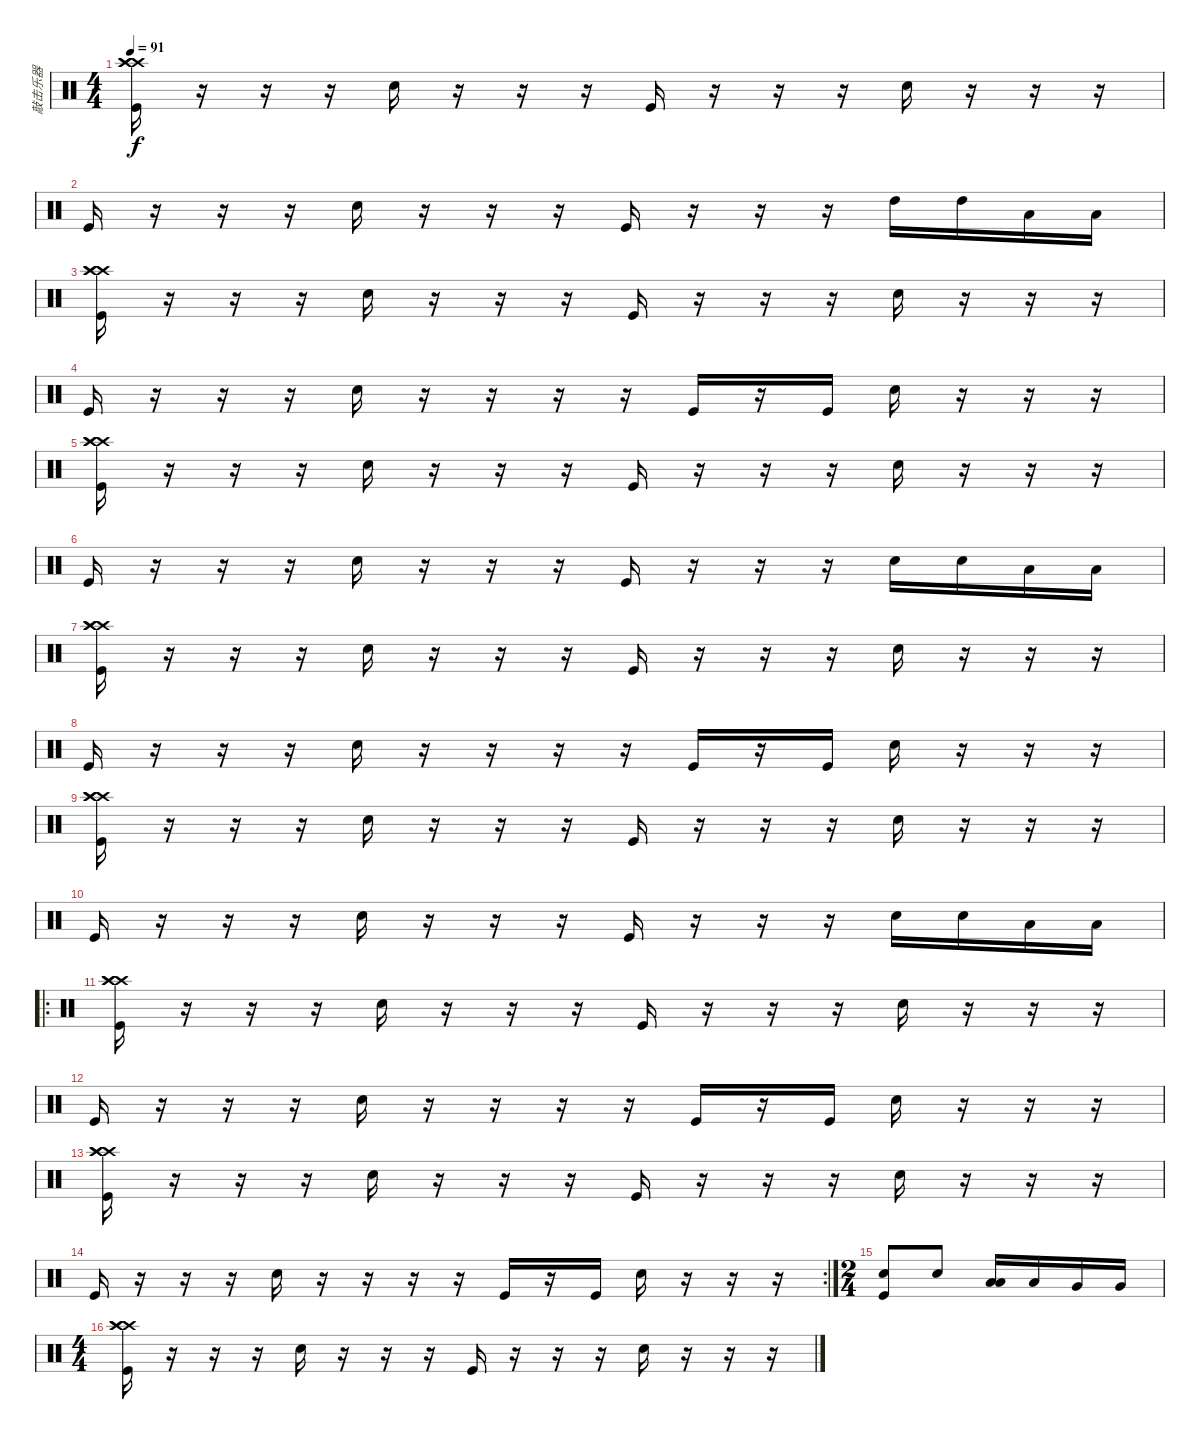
\track ("敲击乐器" "敲击乐器") {instrument percussion}
\staff {score}
\articulation defaults
\ts (4 4)
\tempo 91
\clef neutral
\ks c
("Kick (hit)" "Crash high (hit)" "Crash high (hit)" "Crash high (hit)").16{dy f} r.16 r.16 r.16 "Electric Snare (hit)".16 r.16 r.16 r.16 "Kick (hit)".16 r.16 r.16 r.16 "Electric Snare (hit)".16 r.16 r.16 r.16 |
"Kick (hit)".16 r.16 r.16 r.16 "Electric Snare (hit)".16 r.16 r.16 r.16 "Kick (hit)".16 r.16 r.16 r.16 "High Tom (hit)".16 "High Tom (hit)".16 "Low Tom (hit)".16 "Low Tom (hit)".16 |
("Kick (hit)" "Crash high (hit)" "Crash high (hit)" "Crash high (hit)").16 r.16 r.16 r.16 "Electric Snare (hit)".16 r.16 r.16 r.16 "Kick (hit)".16 r.16 r.16 r.16 "Electric Snare (hit)".16 r.16 r.16 r.16 |
"Kick (hit)".16 r.16 r.16 r.16 "Electric Snare (hit)".16 r.16 r.16 r.16 r.16 "Kick (hit)".16 r.16 "Kick (hit)".16 "Electric Snare (hit)".16 r.16 r.16 r.16 |
("Kick (hit)" "Crash high (hit)" "Crash high (hit)" "Crash high (hit)").16 r.16 r.16 r.16 "Electric Snare (hit)".16 r.16 r.16 r.16 "Kick (hit)".16 r.16 r.16 r.16 "Electric Snare (hit)".16 r.16 r.16 r.16 |
"Kick (hit)".16 r.16 r.16 r.16 "Electric Snare (hit)".16 r.16 r.16 r.16 "Kick (hit)".16 r.16 r.16 r.16 "Electric Snare (hit)".16 "Electric Snare (hit)".16 "Low Tom (hit)".16 "Low Tom (hit)".16 |
("Kick (hit)" "Crash high (hit)" "Crash high (hit)" "Crash high (hit)").16 r.16 r.16 r.16 "Electric Snare (hit)".16 r.16 r.16 r.16 "Kick (hit)".16 r.16 r.16 r.16 "Electric Snare (hit)".16 r.16 r.16 r.16 |
"Kick (hit)".16 r.16 r.16 r.16 "Electric Snare (hit)".16 r.16 r.16 r.16 r.16 "Kick (hit)".16 r.16 "Kick (hit)".16 "Electric Snare (hit)".16 r.16 r.16 r.16 |
("Kick (hit)" "Crash high (hit)" "Crash high (hit)" "Crash high (hit)").16 r.16 r.16 r.16 "Electric Snare (hit)".16 r.16 r.16 r.16 "Kick (hit)".16 r.16 r.16 r.16 "Electric Snare (hit)".16 r.16 r.16 r.16 |
"Kick (hit)".16 r.16 r.16 r.16 "Electric Snare (hit)".16 r.16 r.16 r.16 "Kick (hit)".16 r.16 r.16 r.16 "Electric Snare (hit)".16 "Electric Snare (hit)".16 "Low Tom (hit)".16 "Low Tom (hit)".16 |
\ro
("Kick (hit)" "Crash high (hit)" "Crash high (hit)" "Crash high (hit)").16 r.16 r.16 r.16 "Electric Snare (hit)".16 r.16 r.16 r.16 "Kick (hit)".16 r.16 r.16 r.16 "Electric Snare (hit)".16 r.16 r.16 r.16 |
"Kick (hit)".16 r.16 r.16 r.16 "Electric Snare (hit)".16 r.16 r.16 r.16 r.16 "Kick (hit)".16 r.16 "Kick (hit)".16 "Electric Snare (hit)".16 r.16 r.16 r.16 |
("Kick (hit)" "Crash high (hit)" "Crash high (hit)" "Crash high (hit)").16 r.16 r.16 r.16 "Electric Snare (hit)".16 r.16 r.16 r.16 "Kick (hit)".16 r.16 r.16 r.16 "Electric Snare (hit)".16 r.16 r.16 r.16 |
\rc 2 "Kick (hit)".16
r.16 r.16 r.16 "Electric Snare (hit)".16 r.16 r.16 r.16 r.16 "Kick (hit)".16 r.16 "Kick (hit)".16 "Electric Snare (hit)".16 r.16 r.16 r.16 |
\ts (2 4)
("Electric Snare (hit)" "Kick (hit)").8 "Electric Snare (hit)".8 ("Low Tom (hit)" "Low Tom (hit)").16 "Low Tom (hit)".16 "Very Low Tom (hit)".16 "Very Low Tom (hit)".16 |
\ts (4 4)
("Kick (hit)" "Crash high (hit)" "Crash high (hit)" "Crash high (hit)").16 r.16 r.16 r.16 "Electric Snare (hit)".16 r.16 r.16 r.16 "Kick (hit)".16 r.16 r.16 r.16 "Electric Snare (hit)".16 r.16 r.16 r.16
